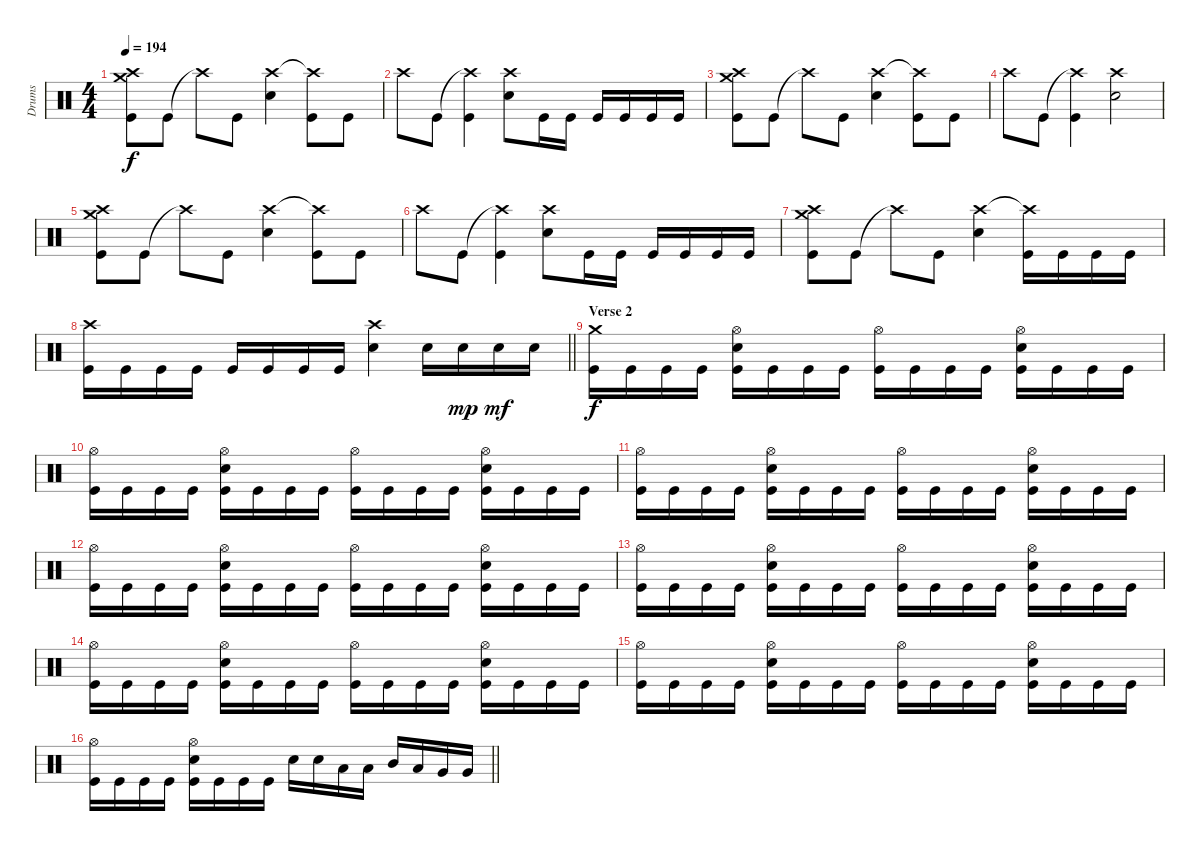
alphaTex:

\track ("Drums" "Drums") {instrument percussion}
\staff {score}
\articulation defaults
\ts (4 4)
\tempo 194
\clef neutral
\ks c
("Crash high (hit)" "Crash medium (hit)" "Kick (hit)").8{dy f} "Kick (hit)".8 "Crash high (hit)"{t}.8 "Kick (hit)".8 ("Crash high (hit)" "Snare (hit) 2").4 ("Crash high (hit)"{t} "Kick (hit)").8 "Kick (hit)".8 |
"Crash high (hit)".8 "Kick (hit)".8 ("Crash high (hit)"{t} "Kick (hit)").4 ("Crash high (hit)" "Snare (hit) 2").8 "Kick (hit)".16 "Kick (hit)".16 "Kick (hit)".16 "Kick (hit)".16 "Kick (hit)".16 "Kick (hit)".16 |
("Crash high (hit)" "Crash medium (hit)" "Kick (hit)").8 "Kick (hit)".8 "Crash high (hit)"{t}.8 "Kick (hit)".8 ("Crash high (hit)" "Snare (hit) 2").4 ("Crash high (hit)"{t} "Kick (hit)").8 "Kick (hit)".8 |
"Crash high (hit)".8 "Kick (hit)".8 ("Crash high (hit)"{t} "Kick (hit)").4 ("Crash high (hit)" "Snare (hit) 2").2 |
("Crash high (hit)" "Crash medium (hit)" "Kick (hit)").8 "Kick (hit)".8 "Crash high (hit)"{t}.8 "Kick (hit)".8 ("Crash high (hit)" "Snare (hit) 2").4 ("Crash high (hit)"{t} "Kick (hit)").8 "Kick (hit)".8 |
"Crash high (hit)".8 "Kick (hit)".8 ("Crash high (hit)"{t} "Kick (hit)").4 ("Crash high (hit)" "Snare (hit) 2").8 "Kick (hit)".16 "Kick (hit)".16 "Kick (hit)".16 "Kick (hit)".16 "Kick (hit)".16 "Kick (hit)".16 |
("Crash high (hit)" "Crash medium (hit)" "Kick (hit)").8 "Kick (hit)".8 "Crash high (hit)"{t}.8 "Kick (hit)".8 ("Crash high (hit)" "Snare (hit) 2").4 ("Crash high (hit)"{t} "Kick (hit)").16 "Kick (hit)".16 "Kick (hit)".16 "Kick (hit)".16 |
\barLineRight lightlight
("Crash high (hit)" "Kick (hit)").16 "Kick (hit)".16 "Kick (hit)".16 "Kick (hit)".16 "Kick (hit)".16 "Kick (hit)".16 "Kick (hit)".16 "Kick (hit)".16 ("Crash high (hit)" "Snare (hit) 2").4 "Snare (hit) 2".16 "Snare (hit) 2".16{dy mp} "Snare (hit) 2".16{dy mf} "Snare (hit) 2".16 |
\section ("" "Verse 2")
("Crash medium (hit)" "Kick (hit)").16{dy f} "Kick (hit)".16 "Kick (hit)".16 "Kick (hit)".16 ("Hi-Hat (open)" "Snare (hit) 2" "Kick (hit)").16 "Kick (hit)".16 "Kick (hit)".16 "Kick (hit)".16 ("Hi-Hat (open)" "Kick (hit)").16 "Kick (hit)".16 "Kick (hit)".16 "Kick (hit)".16 ("Hi-Hat (open)" "Snare (hit) 2" "Kick (hit)").16 "Kick (hit)".16 "Kick (hit)".16 "Kick (hit)".16 |
("Hi-Hat (open)" "Kick (hit)").16 "Kick (hit)".16 "Kick (hit)".16 "Kick (hit)".16 ("Hi-Hat (open)" "Snare (hit) 2" "Kick (hit)").16 "Kick (hit)".16 "Kick (hit)".16 "Kick (hit)".16 ("Hi-Hat (open)" "Kick (hit)").16 "Kick (hit)".16 "Kick (hit)".16 "Kick (hit)".16 ("Hi-Hat (open)" "Snare (hit) 2" "Kick (hit)").16 "Kick (hit)".16 "Kick (hit)".16 "Kick (hit)".16 |
("Hi-Hat (open)" "Kick (hit)").16 "Kick (hit)".16 "Kick (hit)".16 "Kick (hit)".16 ("Hi-Hat (open)" "Snare (hit) 2" "Kick (hit)").16 "Kick (hit)".16 "Kick (hit)".16 "Kick (hit)".16 ("Hi-Hat (open)" "Kick (hit)").16 "Kick (hit)".16 "Kick (hit)".16 "Kick (hit)".16 ("Hi-Hat (open)" "Snare (hit) 2" "Kick (hit)").16 "Kick (hit)".16 "Kick (hit)".16 "Kick (hit)".16 |
("Hi-Hat (open)" "Kick (hit)").16 "Kick (hit)".16 "Kick (hit)".16 "Kick (hit)".16 ("Hi-Hat (open)" "Snare (hit) 2" "Kick (hit)").16 "Kick (hit)".16 "Kick (hit)".16 "Kick (hit)".16 ("Hi-Hat (open)" "Kick (hit)").16 "Kick (hit)".16 "Kick (hit)".16 "Kick (hit)".16 ("Hi-Hat (open)" "Snare (hit) 2" "Kick (hit)").16 "Kick (hit)".16 "Kick (hit)".16 "Kick (hit)".16 |
("Hi-Hat (open)" "Kick (hit)").16 "Kick (hit)".16 "Kick (hit)".16 "Kick (hit)".16 ("Hi-Hat (open)" "Snare (hit) 2" "Kick (hit)").16 "Kick (hit)".16 "Kick (hit)".16 "Kick (hit)".16 ("Hi-Hat (open)" "Kick (hit)").16 "Kick (hit)".16 "Kick (hit)".16 "Kick (hit)".16 ("Hi-Hat (open)" "Snare (hit) 2" "Kick (hit)").16 "Kick (hit)".16 "Kick (hit)".16 "Kick (hit)".16 |
("Hi-Hat (open)" "Kick (hit)").16 "Kick (hit)".16 "Kick (hit)".16 "Kick (hit)".16 ("Hi-Hat (open)" "Snare (hit) 2" "Kick (hit)").16 "Kick (hit)".16 "Kick (hit)".16 "Kick (hit)".16 ("Hi-Hat (open)" "Kick (hit)").16 "Kick (hit)".16 "Kick (hit)".16 "Kick (hit)".16 ("Hi-Hat (open)" "Snare (hit) 2" "Kick (hit)").16 "Kick (hit)".16 "Kick (hit)".16 "Kick (hit)".16 |
("Hi-Hat (open)" "Kick (hit)").16 "Kick (hit)".16 "Kick (hit)".16 "Kick (hit)".16 ("Hi-Hat (open)" "Snare (hit) 2" "Kick (hit)").16 "Kick (hit)".16 "Kick (hit)".16 "Kick (hit)".16 ("Hi-Hat (open)" "Kick (hit)").16 "Kick (hit)".16 "Kick (hit)".16 "Kick (hit)".16 ("Hi-Hat (open)" "Snare (hit) 2" "Kick (hit)").16 "Kick (hit)".16 "Kick (hit)".16 "Kick (hit)".16 |
\barLineRight lightlight
("Hi-Hat (open)" "Kick (hit)").16 "Kick (hit)".16 "Kick (hit)".16 "Kick (hit)".16 ("Hi-Hat (open)" "Snare (hit) 2" "Kick (hit)").16 "Kick (hit)".16 "Kick (hit)".16 "Kick (hit)".16 "Snare (hit) 2".16 "Snare (hit) 2".16 "Low Tom (hit)".16 "Low Tom (hit)".16 "Mid Tom (hit)".16 "Low Tom (hit)".16 "Very Low Tom (hit)".16 "Very Low Tom (hit)".16
